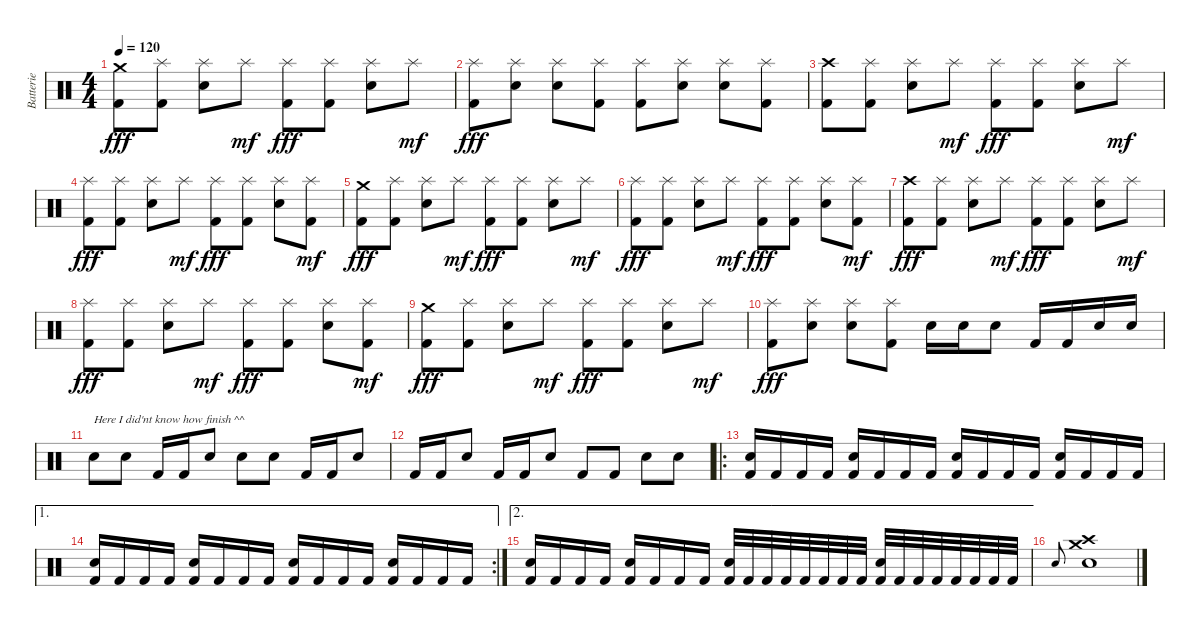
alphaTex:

\track ("Batterie" "Batterie") {instrument percussion}
\staff {score}
\articulation defaults
\ts (4 4)
\tempo 120
\clef neutral
\ks c
("Crash medium (hit)" "Kick (hit) 2").8{dy fff} ("Splash (hit)" "Kick (hit) 2").8 ("Splash (hit)" "Electric Snare (hit)").8 "Splash (hit)".8{dy mf} ("Splash (hit)" "Kick (hit) 2").8{dy fff} ("Splash (hit)" "Kick (hit) 2").8 ("Splash (hit)" "Electric Snare (hit)").8 "Splash (hit)".8{dy mf} |
("Splash (hit)" "Kick (hit) 2").8{dy fff} ("Splash (hit)" "Electric Snare (hit)").8 ("Splash (hit)" "Electric Snare (hit)").8 ("Splash (hit)" "Kick (hit) 2").8 ("Splash (hit)" "Kick (hit) 2").8 ("Splash (hit)" "Electric Snare (hit)").8 ("Splash (hit)" "Electric Snare (hit)").8 ("Splash (hit)" "Kick (hit) 2").8 |
("Crash high (hit)" "Kick (hit) 2").8 ("Splash (hit)" "Kick (hit) 2").8 ("Splash (hit)" "Electric Snare (hit)").8 "Splash (hit)".8{dy mf} ("Splash (hit)" "Kick (hit) 2").8{dy fff} ("Splash (hit)" "Kick (hit) 2").8 ("Splash (hit)" "Electric Snare (hit)").8 "Splash (hit)".8{dy mf} |
("Splash (hit)" "Kick (hit) 2").8{dy fff} ("Splash (hit)" "Kick (hit) 2").8 ("Splash (hit)" "Electric Snare (hit)").8 "Splash (hit)".8{dy mf} ("Splash (hit)" "Kick (hit) 2").8{dy fff} ("Splash (hit)" "Kick (hit) 2").8 ("Splash (hit)" "Electric Snare (hit)").8 ("Splash (hit)" "Kick (hit) 2").8{dy mf} |
("Crash medium (hit)" "Kick (hit) 2").8{dy fff} ("Splash (hit)" "Kick (hit) 2").8 ("Splash (hit)" "Electric Snare (hit)").8 "Splash (hit)".8{dy mf} ("Splash (hit)" "Kick (hit) 2").8{dy fff} ("Splash (hit)" "Kick (hit) 2").8 ("Splash (hit)" "Electric Snare (hit)").8 "Splash (hit)".8{dy mf} |
("Splash (hit)" "Kick (hit) 2").8{dy fff} ("Splash (hit)" "Kick (hit) 2").8 ("Splash (hit)" "Electric Snare (hit)").8 "Splash (hit)".8{dy mf} ("Splash (hit)" "Kick (hit) 2").8{dy fff} ("Splash (hit)" "Kick (hit) 2").8 ("Splash (hit)" "Electric Snare (hit)").8 ("Splash (hit)" "Kick (hit) 2").8{dy mf} |
("Crash high (hit)" "Kick (hit) 2").8{dy fff} ("Splash (hit)" "Kick (hit) 2").8 ("Splash (hit)" "Electric Snare (hit)").8 "Splash (hit)".8{dy mf} ("Splash (hit)" "Kick (hit) 2").8{dy fff} ("Splash (hit)" "Kick (hit) 2").8 ("Splash (hit)" "Electric Snare (hit)").8 "Splash (hit)".8{dy mf} |
("Splash (hit)" "Kick (hit) 2").8{dy fff} ("Splash (hit)" "Kick (hit) 2").8 ("Splash (hit)" "Electric Snare (hit)").8 "Splash (hit)".8{dy mf} ("Splash (hit)" "Kick (hit) 2").8{dy fff} ("Splash (hit)" "Kick (hit) 2").8 ("Splash (hit)" "Electric Snare (hit)").8 ("Splash (hit)" "Kick (hit) 2").8{dy mf} |
("Crash medium (hit)" "Kick (hit) 2").8{dy fff} ("Splash (hit)" "Kick (hit) 2").8 ("Splash (hit)" "Electric Snare (hit)").8 "Splash (hit)".8{dy mf} ("Splash (hit)" "Kick (hit) 2").8{dy fff} ("Splash (hit)" "Kick (hit) 2").8 ("Splash (hit)" "Electric Snare (hit)").8 "Splash (hit)".8{dy mf} |
("Splash (hit)" "Kick (hit) 2").8{dy fff} ("Splash (hit)" "Electric Snare (hit)").8 ("Splash (hit)" "Electric Snare (hit)").8 ("Splash (hit)" "Kick (hit) 2").8 "Electric Snare (hit)".16 "Electric Snare (hit)".16 "Electric Snare (hit)".8 "Kick (hit) 2".16 "Kick (hit) 2".16 "Electric Snare (hit)".16 "Electric Snare (hit)".16 |
"Electric Snare (hit)".8{txt "Here I did'nt know how finish ^^"} "Electric Snare (hit)".8 "Kick (hit) 2".16 "Kick (hit) 2".16 "Electric Snare (hit)".8 "Electric Snare (hit)".8 "Electric Snare (hit)".8 "Kick (hit) 2".16 "Kick (hit) 2".16 "Electric Snare (hit)".8 |
"Kick (hit) 2".16 "Kick (hit) 2".16 "Electric Snare (hit)".8 "Kick (hit) 2".16 "Kick (hit) 2".16 "Electric Snare (hit)".8 "Kick (hit) 2".8 "Kick (hit) 2".8 "Electric Snare (hit)".8 "Electric Snare (hit)".8 |
\ro
("Electric Snare (hit)" "Kick (hit) 2").16 "Kick (hit) 2".16 "Kick (hit) 2".16 "Kick (hit) 2".16 ("Electric Snare (hit)" "Kick (hit) 2").16 "Kick (hit) 2".16 "Kick (hit) 2".16 "Kick (hit) 2".16 ("Electric Snare (hit)" "Kick (hit) 2").16 "Kick (hit) 2".16 "Kick (hit) 2".16 "Kick (hit) 2".16 ("Electric Snare (hit)" "Kick (hit) 2").16 "Kick (hit) 2".16 "Kick (hit) 2".16 "Kick (hit) 2".16 |
\ae 1
\rc 2
("Electric Snare (hit)" "Kick (hit) 2").16 "Kick (hit) 2".16 "Kick (hit) 2".16 "Kick (hit) 2".16 ("Electric Snare (hit)" "Kick (hit) 2").16 "Kick (hit) 2".16 "Kick (hit) 2".16 "Kick (hit) 2".16 ("Electric Snare (hit)" "Kick (hit) 2").16 "Kick (hit) 2".16 "Kick (hit) 2".16 "Kick (hit) 2".16 ("Electric Snare (hit)" "Kick (hit) 2").16 "Kick (hit) 2".16 "Kick (hit) 2".16 "Kick (hit) 2".16 |
\ae 2
("Electric Snare (hit)" "Kick (hit) 2").16 "Kick (hit) 2".16 "Kick (hit) 2".16 "Kick (hit) 2".16 ("Electric Snare (hit)" "Kick (hit) 2").16 "Kick (hit) 2".16 "Kick (hit) 2".16 "Kick (hit) 2".16 ("Electric Snare (hit)" "Kick (hit) 2").32 "Kick (hit) 2".32 "Kick (hit) 2".32 "Kick (hit) 2".32 "Kick (hit) 2".32 "Kick (hit) 2".32 "Kick (hit) 2".32 "Kick (hit) 2".32 ("Electric Snare (hit)" "Kick (hit) 2").32 "Kick (hit) 2".32 "Kick (hit) 2".32 "Kick (hit) 2".32 "Kick (hit) 2".32 "Kick (hit) 2".32 "Kick (hit) 2".32 "Kick (hit) 2".32 |
"Electric Snare (hit)".8{gr onbeat} ("Crash high (hit)" "Crash medium (hit)" "Electric Snare (hit)").1
